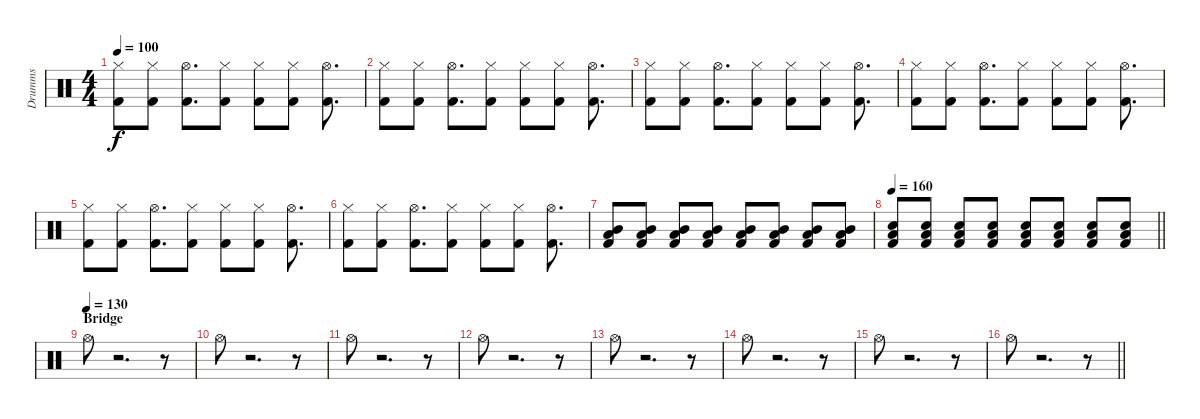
\track ("Drumms" "Drumms") {instrument percussion}
\staff {score}
\articulation defaults
\ts (4 4)
\tempo 100
\clef neutral
\ks c
("Hi-Hat (closed)" "Kick (hit) 2").8{dy f} ("Hi-Hat (closed)" "Kick (hit) 2").8 ("Hi-Hat (open)" "Kick (hit) 2").8{d} ("Hi-Hat (closed)" "Kick (hit) 2").8 ("Hi-Hat (closed)" "Kick (hit) 2").8 ("Hi-Hat (closed)" "Kick (hit) 2").8 ("Hi-Hat (open)" "Kick (hit) 2").8{d} |
("Hi-Hat (closed)" "Kick (hit) 2").8 ("Hi-Hat (closed)" "Kick (hit) 2").8 ("Hi-Hat (open)" "Kick (hit) 2").8{d} ("Hi-Hat (closed)" "Kick (hit) 2").8 ("Hi-Hat (closed)" "Kick (hit) 2").8 ("Hi-Hat (closed)" "Kick (hit) 2").8 ("Hi-Hat (open)" "Kick (hit) 2").8{d} |
("Hi-Hat (closed)" "Kick (hit) 2").8 ("Hi-Hat (closed)" "Kick (hit) 2").8 ("Hi-Hat (open)" "Kick (hit) 2").8{d} ("Hi-Hat (closed)" "Kick (hit) 2").8 ("Hi-Hat (closed)" "Kick (hit) 2").8 ("Hi-Hat (closed)" "Kick (hit) 2").8 ("Hi-Hat (open)" "Kick (hit) 2").8{d} |
("Hi-Hat (closed)" "Kick (hit) 2").8 ("Hi-Hat (closed)" "Kick (hit) 2").8 ("Hi-Hat (open)" "Kick (hit) 2").8{d} ("Hi-Hat (closed)" "Kick (hit) 2").8 ("Hi-Hat (closed)" "Kick (hit) 2").8 ("Hi-Hat (closed)" "Kick (hit) 2").8 ("Hi-Hat (open)" "Kick (hit) 2").8{d} |
("Hi-Hat (closed)" "Kick (hit) 2").8 ("Hi-Hat (closed)" "Kick (hit) 2").8 ("Hi-Hat (open)" "Kick (hit) 2").8{d} ("Hi-Hat (closed)" "Kick (hit) 2").8 ("Hi-Hat (closed)" "Kick (hit) 2").8 ("Hi-Hat (closed)" "Kick (hit) 2").8 ("Hi-Hat (open)" "Kick (hit) 2").8{d} |
("Hi-Hat (closed)" "Kick (hit) 2").8 ("Hi-Hat (closed)" "Kick (hit) 2").8 ("Hi-Hat (open)" "Kick (hit) 2").8{d} ("Hi-Hat (closed)" "Kick (hit) 2").8 ("Hi-Hat (closed)" "Kick (hit) 2").8 ("Hi-Hat (closed)" "Kick (hit) 2").8 ("Hi-Hat (open)" "Kick (hit) 2").8{d} |
("Low Floor Tom (hit)" "Mid Tom (hit)" "Kick (hit) 2").8 ("Low Floor Tom (hit)" "Mid Tom (hit)" "Kick (hit) 2").8 ("Low Floor Tom (hit)" "Mid Tom (hit)" "Kick (hit) 2").8 ("Low Floor Tom (hit)" "Mid Tom (hit)" "Kick (hit) 2").8 ("Low Floor Tom (hit)" "Mid Tom (hit)" "Kick (hit) 2").8 ("Low Floor Tom (hit)" "Mid Tom (hit)" "Kick (hit) 2").8 ("Low Floor Tom (hit)" "Mid Tom (hit)" "Kick (hit) 2").8 ("Low Floor Tom (hit)" "Mid Tom (hit)" "Kick (hit) 2").8 |
\tempo 150
\tempo 160
\barLineRight lightlight
("Low Floor Tom (hit)" "Snare (hit) 2" "Kick (hit) 2").8 ("Low Floor Tom (hit)" "Snare (hit) 2" "Kick (hit) 2").8 ("Low Floor Tom (hit)" "Snare (hit) 2" "Kick (hit) 2").8 ("Low Floor Tom (hit)" "Snare (hit) 2" "Kick (hit) 2").8 ("Low Floor Tom (hit)" "Snare (hit) 2" "Kick (hit) 2").8 ("Low Floor Tom (hit)" "Snare (hit) 2" "Kick (hit) 2").8 ("Low Floor Tom (hit)" "Snare (hit) 2" "Kick (hit) 2").8 ("Low Floor Tom (hit)" "Snare (hit) 2" "Kick (hit) 2").8 |
\section ("" "Bridge")
\tempo (130)
"Hi-Hat (open)".8 r.2{d} r.8 |
"Hi-Hat (open)".8 r.2{d} r.8 |
"Hi-Hat (open)".8 r.2{d} r.8 |
"Hi-Hat (open)".8 r.2{d} r.8 |
"Hi-Hat (open)".8 r.2{d} r.8 |
"Hi-Hat (open)".8 r.2{d} r.8 |
"Hi-Hat (open)".8 r.2{d} r.8 |
\barLineRight lightlight "Hi-Hat (open)".8
r.2{d} r.8
